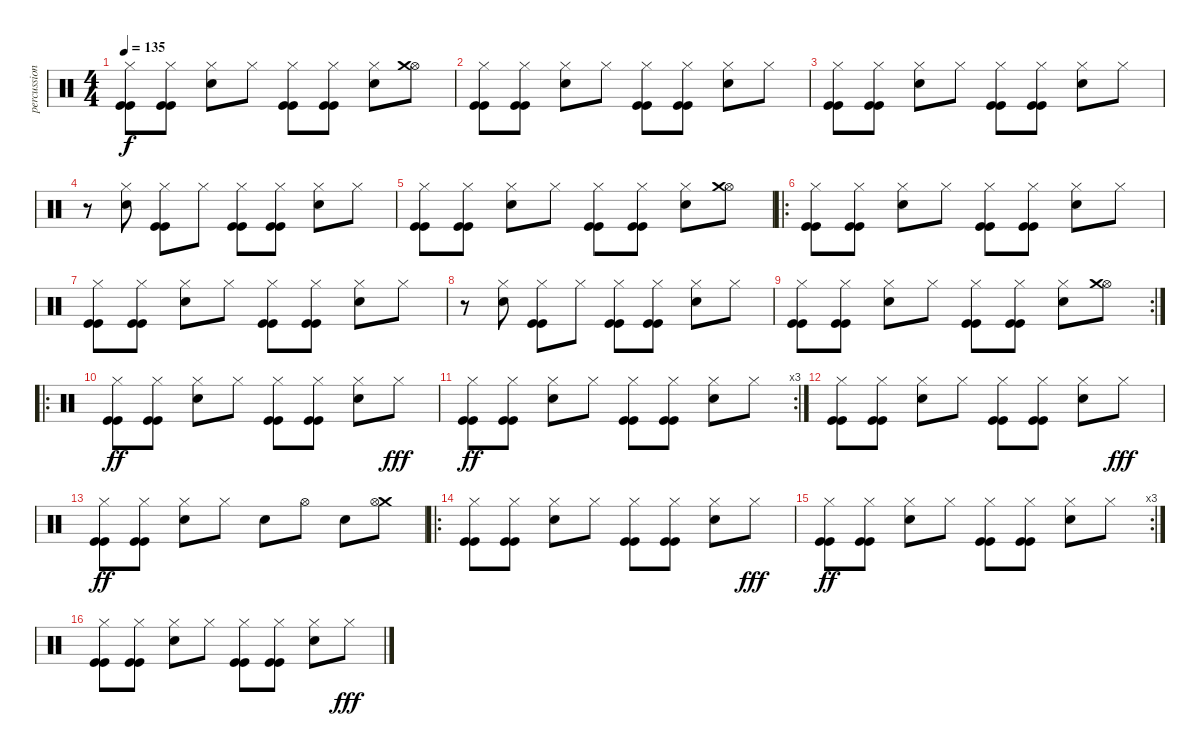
\track ("percussions" "percussion") {instrument percussion}
\staff {score}
\articulation defaults
\ts (4 4)
\tempo 135
\clef neutral
\ks c
("Hi-Hat (closed)" "Kick (hit)" "Kick (hit)").8{dy f} ("Hi-Hat (closed)" "Kick (hit)" "Kick (hit)").8 ("Hi-Hat (closed)" "Electric Snare (hit)").8 "Hi-Hat (closed)".8 ("Hi-Hat (closed)" "Kick (hit)" "Kick (hit)").8 ("Hi-Hat (closed)" "Kick (hit)" "Kick (hit)").8 ("Hi-Hat (closed)" "Electric Snare (hit)").8 ("Hi-Hat (open)" "Crash medium (hit)").8 |
("Hi-Hat (closed)" "Kick (hit)" "Kick (hit)").8 ("Hi-Hat (closed)" "Kick (hit)" "Kick (hit)").8 ("Hi-Hat (closed)" "Electric Snare (hit)").8 "Hi-Hat (closed)".8 ("Hi-Hat (closed)" "Kick (hit)" "Kick (hit)").8 ("Hi-Hat (closed)" "Kick (hit)" "Kick (hit)").8 ("Hi-Hat (closed)" "Electric Snare (hit)").8 "Hi-Hat (closed)".8 |
("Hi-Hat (closed)" "Kick (hit)" "Kick (hit)").8 ("Hi-Hat (closed)" "Kick (hit)" "Kick (hit)").8 ("Hi-Hat (closed)" "Electric Snare (hit)").8 "Hi-Hat (closed)".8 ("Hi-Hat (closed)" "Kick (hit)" "Kick (hit)").8 ("Hi-Hat (closed)" "Kick (hit)" "Kick (hit)").8 ("Hi-Hat (closed)" "Electric Snare (hit)").8 "Hi-Hat (closed)".8 |
r.8 ("Hi-Hat (closed)" "Electric Snare (hit)").8 ("Hi-Hat (closed)" "Kick (hit)" "Kick (hit)").8 "Hi-Hat (closed)".8 ("Hi-Hat (closed)" "Kick (hit)" "Kick (hit)").8 ("Hi-Hat (closed)" "Kick (hit)" "Kick (hit)").8 ("Hi-Hat (closed)" "Electric Snare (hit)").8 "Hi-Hat (closed)".8 |
("Hi-Hat (closed)" "Kick (hit)" "Kick (hit)").8 ("Hi-Hat (closed)" "Kick (hit)" "Kick (hit)").8 ("Hi-Hat (closed)" "Electric Snare (hit)").8 "Hi-Hat (closed)".8 ("Hi-Hat (closed)" "Kick (hit)" "Kick (hit)").8 ("Hi-Hat (closed)" "Kick (hit)" "Kick (hit)").8 ("Hi-Hat (closed)" "Electric Snare (hit)").8 ("Hi-Hat (open)" "Crash medium (hit)").8 |
\ro
("Hi-Hat (closed)" "Kick (hit)" "Kick (hit)").8 ("Hi-Hat (closed)" "Kick (hit)" "Kick (hit)").8 ("Hi-Hat (closed)" "Electric Snare (hit)").8 "Hi-Hat (closed)".8 ("Hi-Hat (closed)" "Kick (hit)" "Kick (hit)").8 ("Hi-Hat (closed)" "Kick (hit)" "Kick (hit)").8 ("Hi-Hat (closed)" "Electric Snare (hit)").8 "Hi-Hat (closed)".8 |
("Hi-Hat (closed)" "Kick (hit)" "Kick (hit)").8 ("Hi-Hat (closed)" "Kick (hit)" "Kick (hit)").8 ("Hi-Hat (closed)" "Electric Snare (hit)").8 "Hi-Hat (closed)".8 ("Hi-Hat (closed)" "Kick (hit)" "Kick (hit)").8 ("Hi-Hat (closed)" "Kick (hit)" "Kick (hit)").8 ("Hi-Hat (closed)" "Electric Snare (hit)").8 "Hi-Hat (closed)".8 |
r.8 ("Hi-Hat (closed)" "Electric Snare (hit)").8 ("Hi-Hat (closed)" "Kick (hit)" "Kick (hit)").8 "Hi-Hat (closed)".8 ("Hi-Hat (closed)" "Kick (hit)" "Kick (hit)").8 ("Hi-Hat (closed)" "Kick (hit)" "Kick (hit)").8 ("Hi-Hat (closed)" "Electric Snare (hit)").8 "Hi-Hat (closed)".8 |
\rc 2
("Hi-Hat (closed)" "Kick (hit)" "Kick (hit)").8 ("Hi-Hat (closed)" "Kick (hit)" "Kick (hit)").8 ("Hi-Hat (closed)" "Electric Snare (hit)").8 "Hi-Hat (closed)".8 ("Hi-Hat (closed)" "Kick (hit)" "Kick (hit)").8 ("Hi-Hat (closed)" "Kick (hit)" "Kick (hit)").8 ("Hi-Hat (closed)" "Electric Snare (hit)").8 ("Hi-Hat (open)" "Crash medium (hit)").8 |
\ro
("Hi-Hat (closed)" "Kick (hit)" "Kick (hit)").8{dy ff} ("Hi-Hat (closed)" "Kick (hit)" "Kick (hit)").8 ("Hi-Hat (closed)" "Electric Snare (hit)").8 "Hi-Hat (closed)".8 ("Hi-Hat (closed)" "Kick (hit)" "Kick (hit)").8 ("Hi-Hat (closed)" "Kick (hit)" "Kick (hit)").8 ("Hi-Hat (closed)" "Electric Snare (hit)").8 "Hi-Hat (closed)".8{dy fff} |
\rc 3
("Hi-Hat (closed)" "Kick (hit)" "Kick (hit)").8{dy ff} ("Hi-Hat (closed)" "Kick (hit)" "Kick (hit)").8 ("Hi-Hat (closed)" "Electric Snare (hit)").8 "Hi-Hat (closed)".8 ("Hi-Hat (closed)" "Kick (hit)" "Kick (hit)").8 ("Hi-Hat (closed)" "Kick (hit)" "Kick (hit)").8 ("Hi-Hat (closed)" "Electric Snare (hit)").8 "Hi-Hat (closed)".8 |
("Hi-Hat (closed)" "Kick (hit)" "Kick (hit)").8 ("Hi-Hat (closed)" "Kick (hit)" "Kick (hit)").8 ("Hi-Hat (closed)" "Electric Snare (hit)").8 "Hi-Hat (closed)".8 ("Hi-Hat (closed)" "Kick (hit)" "Kick (hit)").8 ("Hi-Hat (closed)" "Kick (hit)" "Kick (hit)").8 ("Hi-Hat (closed)" "Electric Snare (hit)").8 "Hi-Hat (closed)".8{dy fff} |
("Hi-Hat (closed)" "Kick (hit)" "Kick (hit)").8{dy ff} ("Hi-Hat (closed)" "Kick (hit)" "Kick (hit)").8 ("Hi-Hat (closed)" "Electric Snare (hit)").8 "Hi-Hat (closed)".8 "Electric Snare (hit)".8 "Hi-Hat (open)".8 "Electric Snare (hit)".8 ("Crash medium (hit)" "Hi-Hat (open)").8 |
\ro
("Hi-Hat (closed)" "Kick (hit)" "Kick (hit)").8 ("Hi-Hat (closed)" "Kick (hit)" "Kick (hit)").8 ("Hi-Hat (closed)" "Electric Snare (hit)").8 "Hi-Hat (closed)".8 ("Hi-Hat (closed)" "Kick (hit)" "Kick (hit)").8 ("Hi-Hat (closed)" "Kick (hit)" "Kick (hit)").8 ("Hi-Hat (closed)" "Electric Snare (hit)").8 "Hi-Hat (closed)".8{dy fff} |
\rc 3
("Hi-Hat (closed)" "Kick (hit)" "Kick (hit)").8{dy ff} ("Hi-Hat (closed)" "Kick (hit)" "Kick (hit)").8 ("Hi-Hat (closed)" "Electric Snare (hit)").8 "Hi-Hat (closed)".8 ("Hi-Hat (closed)" "Kick (hit)" "Kick (hit)").8 ("Hi-Hat (closed)" "Kick (hit)" "Kick (hit)").8 ("Hi-Hat (closed)" "Electric Snare (hit)").8 "Hi-Hat (closed)".8 |
("Hi-Hat (closed)" "Kick (hit)" "Kick (hit)").8 ("Hi-Hat (closed)" "Kick (hit)" "Kick (hit)").8 ("Hi-Hat (closed)" "Electric Snare (hit)").8 "Hi-Hat (closed)".8 ("Hi-Hat (closed)" "Kick (hit)" "Kick (hit)").8 ("Hi-Hat (closed)" "Kick (hit)" "Kick (hit)").8 ("Hi-Hat (closed)" "Electric Snare (hit)").8 "Hi-Hat (closed)".8{dy fff}
